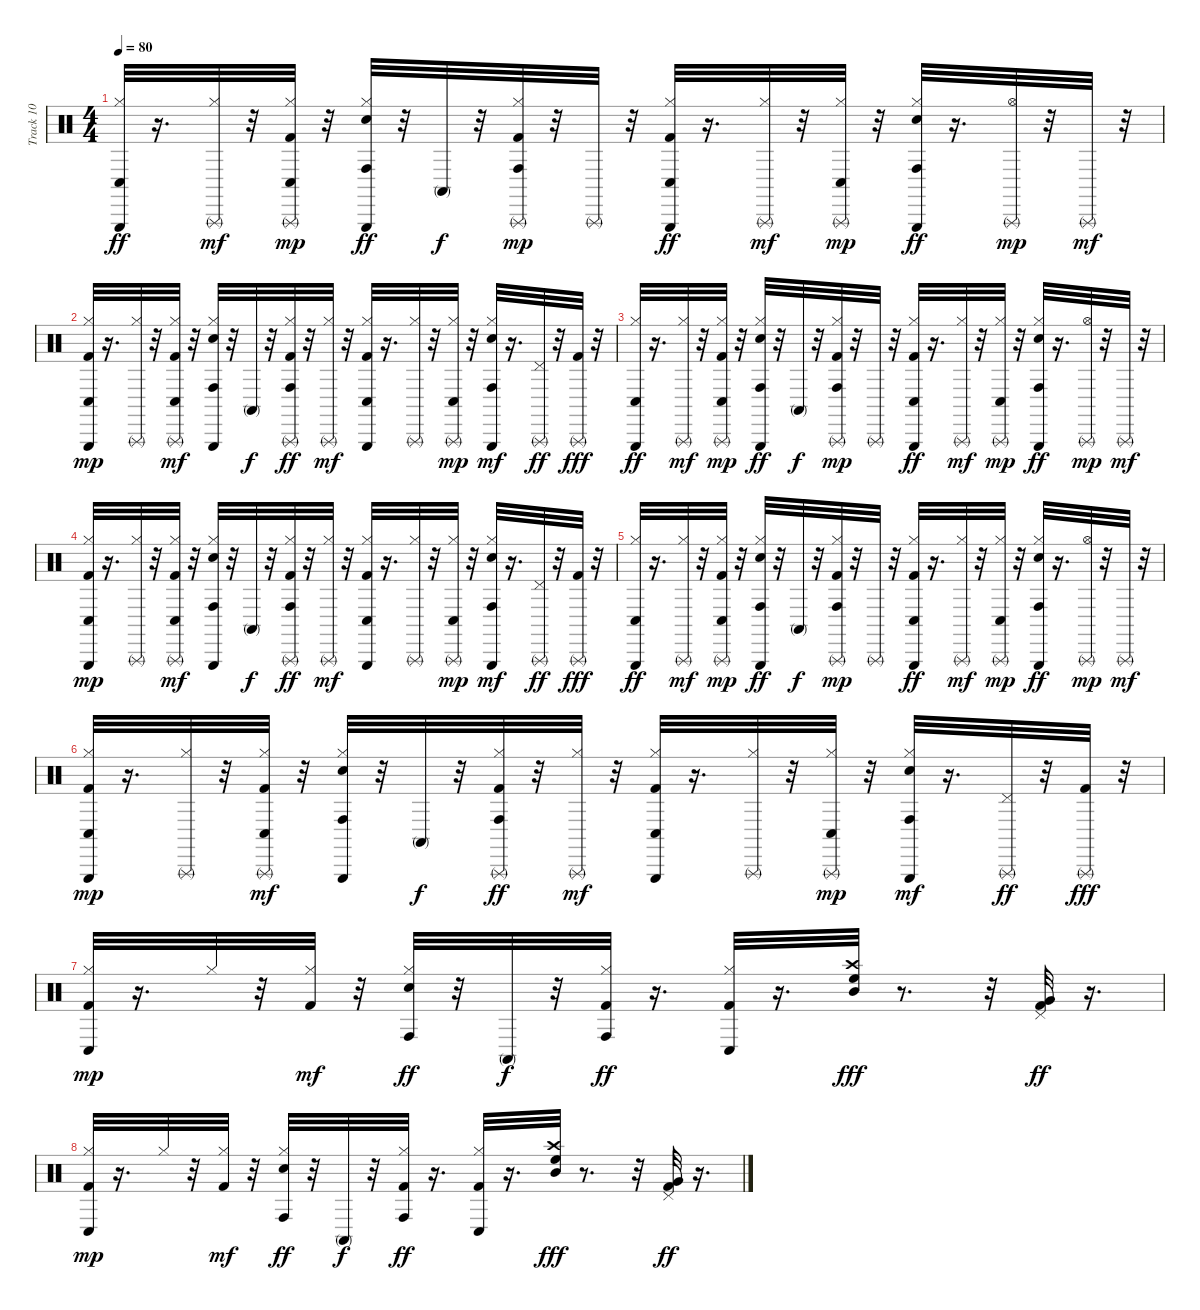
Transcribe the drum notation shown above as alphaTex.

\track ("Track 10" "Track 10") {instrument percussion}
\staff {score}
\articulation defaults
\ts (4 4)
\tempo 80
\clef neutral
\ks c
("Triangle (hit)" "Conga low (hit)" "Hi-Hat (closed)").32{dy ff} r.16{d} ("Triangle (rnute)" "Hi-Hat (closed)").32{dy mf} r.32 ("Conga low (hit)" "Kick (hit) 2" "Hi-Hat (closed)" "Triangle (rnute)").32{dy mp} r.32 ("Triangle (hit)" "Conga high (hit)" "Snare (hit) 2" "Hi-Hat (closed)").32{dy ff} r.32 "Conga high (mute)".32{dy f} r.32 ("Hi-Hat (closed)" "Conga high (hit)" "Kick (hit) 2" "Triangle (rnute)").32{dy mp} r.32 "Triangle (rnute)".32 r.32 ("Triangle (hit)" "Conga low (hit)" "Kick (hit) 2" "Hi-Hat (closed)").32{dy ff} r.16{d} ("Hi-Hat (closed)" "Triangle (rnute)").32{dy mf} r.32 ("Conga low (hit)" "Hi-Hat (closed)" "Triangle (rnute)").32{dy mp} r.32 ("Triangle (hit)" "Conga high (hit)" "Snare (hit) 2" "Hi-Hat (closed)").32{dy ff} r.16{d} ("Triangle (rnute)" "Hi-Hat (open)").32{dy mp} r.32 "Triangle (rnute)".32{dy mf} r.32 |
("Hi-Hat (closed)" "Kick (hit) 2" "Conga low (hit)" "Triangle (hit)").32{dy mp} r.16{d} ("Triangle (rnute)" "Hi-Hat (closed)").32 r.32 ("Triangle (rnute)" "Conga low (hit)" "Kick (hit) 2" "Hi-Hat (closed)").32{dy mf} r.32 ("Conga high (hit)" "Snare (hit) 2" "Hi-Hat (closed)" "Triangle (hit)").32 r.32 "Conga high (mute)".32{dy f} r.32 ("Triangle (rnute)" "Conga high (hit)" "Kick (hit) 2" "Hi-Hat (closed)").32{dy ff} r.32 ("Triangle (rnute)" "Hi-Hat (closed)").32{dy mf} r.32 ("Conga low (hit)" "Kick (hit) 2" "Hi-Hat (closed)" "Triangle (hit)").32 r.16{d} ("Triangle (rnute)" "Hi-Hat (closed)").32 r.32 ("Conga low (hit)" "Hi-Hat (closed)" "Triangle (rnute)").32{dy mp} r.32 ("Conga high (hit)" "Snare (hit) 2" "Hi-Hat (closed)" "Triangle (hit)").32{dy mf} r.16{d} ("Triangle (rnute)" "Pedal Hi-Hat (hit)").32{dy ff} r.32 ("Triangle (rnute)" "Kick (hit) 2").32{dy fff} r.32 |
("Triangle (hit)" "Conga low (hit)" "Hi-Hat (closed)").32{dy ff} r.16{d} ("Triangle (rnute)" "Hi-Hat (closed)").32{dy mf} r.32 ("Conga low (hit)" "Kick (hit) 2" "Hi-Hat (closed)" "Triangle (rnute)").32{dy mp} r.32 ("Triangle (hit)" "Conga high (hit)" "Snare (hit) 2" "Hi-Hat (closed)").32{dy ff} r.32 "Conga high (mute)".32{dy f} r.32 ("Hi-Hat (closed)" "Conga high (hit)" "Kick (hit) 2" "Triangle (rnute)").32{dy mp} r.32 "Triangle (rnute)".32 r.32 ("Triangle (hit)" "Conga low (hit)" "Kick (hit) 2" "Hi-Hat (closed)").32{dy ff} r.16{d} ("Hi-Hat (closed)" "Triangle (rnute)").32{dy mf} r.32 ("Conga low (hit)" "Hi-Hat (closed)" "Triangle (rnute)").32{dy mp} r.32 ("Triangle (hit)" "Conga high (hit)" "Snare (hit) 2" "Hi-Hat (closed)").32{dy ff} r.16{d} ("Triangle (rnute)" "Hi-Hat (open)").32{dy mp} r.32 "Triangle (rnute)".32{dy mf} r.32 |
("Hi-Hat (closed)" "Kick (hit) 2" "Conga low (hit)" "Triangle (hit)").32{dy mp} r.16{d} ("Triangle (rnute)" "Hi-Hat (closed)").32 r.32 ("Triangle (rnute)" "Conga low (hit)" "Kick (hit) 2" "Hi-Hat (closed)").32{dy mf} r.32 ("Conga high (hit)" "Snare (hit) 2" "Hi-Hat (closed)" "Triangle (hit)").32 r.32 "Conga high (mute)".32{dy f} r.32 ("Triangle (rnute)" "Conga high (hit)" "Kick (hit) 2" "Hi-Hat (closed)").32{dy ff} r.32 ("Triangle (rnute)" "Hi-Hat (closed)").32{dy mf} r.32 ("Conga low (hit)" "Kick (hit) 2" "Hi-Hat (closed)" "Triangle (hit)").32 r.16{d} ("Triangle (rnute)" "Hi-Hat (closed)").32 r.32 ("Conga low (hit)" "Hi-Hat (closed)" "Triangle (rnute)").32{dy mp} r.32 ("Conga high (hit)" "Snare (hit) 2" "Hi-Hat (closed)" "Triangle (hit)").32{dy mf} r.16{d} ("Triangle (rnute)" "Pedal Hi-Hat (hit)").32{dy ff} r.32 ("Triangle (rnute)" "Kick (hit) 2").32{dy fff} r.32 |
("Triangle (hit)" "Conga low (hit)" "Hi-Hat (closed)").32{dy ff} r.16{d} ("Triangle (rnute)" "Hi-Hat (closed)").32{dy mf} r.32 ("Conga low (hit)" "Kick (hit) 2" "Hi-Hat (closed)" "Triangle (rnute)").32{dy mp} r.32 ("Triangle (hit)" "Conga high (hit)" "Snare (hit) 2" "Hi-Hat (closed)").32{dy ff} r.32 "Conga high (mute)".32{dy f} r.32 ("Hi-Hat (closed)" "Conga high (hit)" "Kick (hit) 2" "Triangle (rnute)").32{dy mp} r.32 "Triangle (rnute)".32 r.32 ("Triangle (hit)" "Conga low (hit)" "Kick (hit) 2" "Hi-Hat (closed)").32{dy ff} r.16{d} ("Hi-Hat (closed)" "Triangle (rnute)").32{dy mf} r.32 ("Conga low (hit)" "Hi-Hat (closed)" "Triangle (rnute)").32{dy mp} r.32 ("Triangle (hit)" "Conga high (hit)" "Snare (hit) 2" "Hi-Hat (closed)").32{dy ff} r.16{d} ("Triangle (rnute)" "Hi-Hat (open)").32{dy mp} r.32 "Triangle (rnute)".32{dy mf} r.32 |
("Hi-Hat (closed)" "Kick (hit) 2" "Conga low (hit)" "Triangle (hit)").32{dy mp} r.16{d} ("Triangle (rnute)" "Hi-Hat (closed)").32 r.32 ("Triangle (rnute)" "Conga low (hit)" "Kick (hit) 2" "Hi-Hat (closed)").32{dy mf} r.32 ("Conga high (hit)" "Snare (hit) 2" "Hi-Hat (closed)" "Triangle (hit)").32 r.32 "Conga high (mute)".32{dy f} r.32 ("Triangle (rnute)" "Conga high (hit)" "Kick (hit) 2" "Hi-Hat (closed)").32{dy ff} r.32 ("Triangle (rnute)" "Hi-Hat (closed)").32{dy mf} r.32 ("Conga low (hit)" "Kick (hit) 2" "Hi-Hat (closed)" "Triangle (hit)").32 r.16{d} ("Triangle (rnute)" "Hi-Hat (closed)").32 r.32 ("Conga low (hit)" "Hi-Hat (closed)" "Triangle (rnute)").32{dy mp} r.32 ("Conga high (hit)" "Snare (hit) 2" "Hi-Hat (closed)" "Triangle (hit)").32{dy mf} r.16{d} ("Triangle (rnute)" "Pedal Hi-Hat (hit)").32{dy ff} r.32 ("Triangle (rnute)" "Kick (hit) 2").32{dy fff} r.32 |
("Hi-Hat (closed)" "Kick (hit) 2" "Conga low (hit)").32{dy mp} r.16{d} "Hi-Hat (closed)".32 r.32 ("Kick (hit) 2" "Hi-Hat (closed)").32{dy mf} r.32 ("Conga high (hit)" "Snare (hit) 2" "Hi-Hat (closed)").32{dy ff} r.32 "Conga high (mute)".32{dy f} r.32 ("Conga high (hit)" "Kick (hit) 2" "Hi-Hat (closed)").32{dy ff} r.16{d} ("Conga low (hit)" "Kick (hit) 2" "Hi-Hat (closed)").32 r.16{d} ("High Floor Tom (hit)" "Crash high (hit)" "Mid Tom (hit)").32{dy fff} r.8{d} r.32 ("Kick (hit) 2" "Very Low Tom (hit)" "Pedal Hi-Hat (hit)").32{dy ff} r.16{d} |
("Hi-Hat (closed)" "Kick (hit) 2" "Conga low (hit)").32{dy mp} r.16{d} "Hi-Hat (closed)".32 r.32 ("Kick (hit) 2" "Hi-Hat (closed)").32{dy mf} r.32 ("Conga high (hit)" "Snare (hit) 2" "Hi-Hat (closed)").32{dy ff} r.32 "Conga high (mute)".32{dy f} r.32 ("Conga high (hit)" "Kick (hit) 2" "Hi-Hat (closed)").32{dy ff} r.16{d} ("Conga low (hit)" "Kick (hit) 2" "Hi-Hat (closed)").32 r.16{d} ("High Floor Tom (hit)" "Crash high (hit)" "Mid Tom (hit)").32{dy fff} r.8{d} r.32 ("Kick (hit) 2" "Very Low Tom (hit)" "Pedal Hi-Hat (hit)").32{dy ff} r.16{d}
